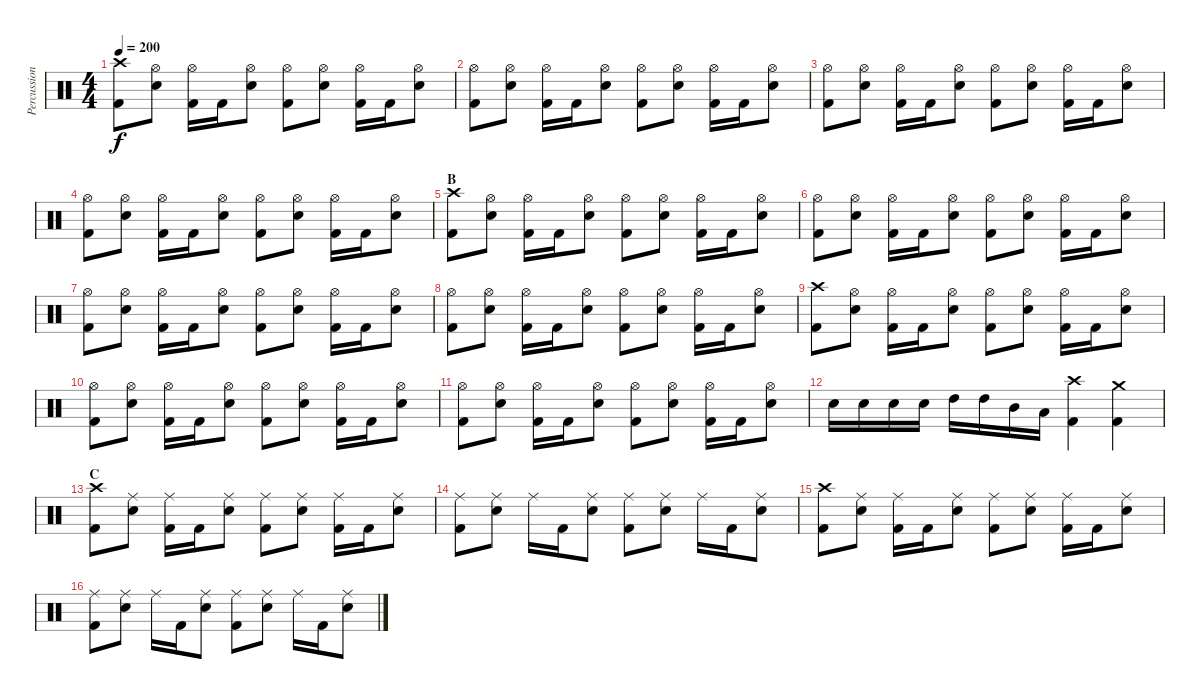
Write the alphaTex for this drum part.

\track ("Percussion" "Percussion") {instrument percussion}
\staff {score}
\articulation defaults
\ts (4 4)
\tempo 200
\clef neutral
\ks c
("Crash high (hit)" "Kick (hit) 2").8{dy f} ("Hi-Hat (open)" "Electric Snare (hit)").8 ("Hi-Hat (open)" "Kick (hit) 2").16 "Kick (hit) 2".16 ("Hi-Hat (open)" "Electric Snare (hit)").8 ("Hi-Hat (open)" "Kick (hit) 2").8 ("Hi-Hat (open)" "Electric Snare (hit)").8 ("Hi-Hat (open)" "Kick (hit) 2").16 "Kick (hit) 2".16 ("Hi-Hat (open)" "Electric Snare (hit)").8 |
("Hi-Hat (open)" "Kick (hit) 2").8 ("Hi-Hat (open)" "Electric Snare (hit)").8 ("Hi-Hat (open)" "Kick (hit) 2").16 "Kick (hit) 2".16 ("Hi-Hat (open)" "Electric Snare (hit)").8 ("Hi-Hat (open)" "Kick (hit) 2").8 ("Hi-Hat (open)" "Electric Snare (hit)").8 ("Hi-Hat (open)" "Kick (hit) 2").16 "Kick (hit) 2".16 ("Hi-Hat (open)" "Electric Snare (hit)").8 |
("Hi-Hat (open)" "Kick (hit) 2").8 ("Hi-Hat (open)" "Electric Snare (hit)").8 ("Hi-Hat (open)" "Kick (hit) 2").16 "Kick (hit) 2".16 ("Hi-Hat (open)" "Electric Snare (hit)").8 ("Hi-Hat (open)" "Kick (hit) 2").8 ("Hi-Hat (open)" "Electric Snare (hit)").8 ("Hi-Hat (open)" "Kick (hit) 2").16 "Kick (hit) 2".16 ("Hi-Hat (open)" "Electric Snare (hit)").8 |
("Hi-Hat (open)" "Kick (hit) 2").8 ("Hi-Hat (open)" "Electric Snare (hit)").8 ("Hi-Hat (open)" "Kick (hit) 2").16 "Kick (hit) 2".16 ("Hi-Hat (open)" "Electric Snare (hit)").8 ("Hi-Hat (open)" "Kick (hit) 2").8 ("Hi-Hat (open)" "Electric Snare (hit)").8 ("Hi-Hat (open)" "Kick (hit) 2").16 "Kick (hit) 2".16 ("Hi-Hat (open)" "Electric Snare (hit)").8 |
\section ("" "B")
("Crash high (hit)" "Kick (hit) 2").8 ("Hi-Hat (open)" "Electric Snare (hit)").8 ("Hi-Hat (open)" "Kick (hit) 2").16 "Kick (hit) 2".16 ("Hi-Hat (open)" "Electric Snare (hit)").8 ("Hi-Hat (open)" "Kick (hit) 2").8 ("Hi-Hat (open)" "Electric Snare (hit)").8 ("Hi-Hat (open)" "Kick (hit) 2").16 "Kick (hit) 2".16 ("Hi-Hat (open)" "Electric Snare (hit)").8 |
("Hi-Hat (open)" "Kick (hit) 2").8 ("Hi-Hat (open)" "Electric Snare (hit)").8 ("Hi-Hat (open)" "Kick (hit) 2").16 "Kick (hit) 2".16 ("Hi-Hat (open)" "Electric Snare (hit)").8 ("Hi-Hat (open)" "Kick (hit) 2").8 ("Hi-Hat (open)" "Electric Snare (hit)").8 ("Hi-Hat (open)" "Kick (hit) 2").16 "Kick (hit) 2".16 ("Hi-Hat (open)" "Electric Snare (hit)").8 |
("Hi-Hat (open)" "Kick (hit) 2").8 ("Hi-Hat (open)" "Electric Snare (hit)").8 ("Hi-Hat (open)" "Kick (hit) 2").16 "Kick (hit) 2".16 ("Hi-Hat (open)" "Electric Snare (hit)").8 ("Hi-Hat (open)" "Kick (hit) 2").8 ("Hi-Hat (open)" "Electric Snare (hit)").8 ("Hi-Hat (open)" "Kick (hit) 2").16 "Kick (hit) 2".16 ("Hi-Hat (open)" "Electric Snare (hit)").8 |
("Hi-Hat (open)" "Kick (hit) 2").8 ("Hi-Hat (open)" "Electric Snare (hit)").8 ("Hi-Hat (open)" "Kick (hit) 2").16 "Kick (hit) 2".16 ("Hi-Hat (open)" "Electric Snare (hit)").8 ("Hi-Hat (open)" "Kick (hit) 2").8 ("Hi-Hat (open)" "Electric Snare (hit)").8 ("Hi-Hat (open)" "Kick (hit) 2").16 "Kick (hit) 2".16 ("Hi-Hat (open)" "Electric Snare (hit)").8 |
("Crash high (hit)" "Kick (hit) 2").8 ("Hi-Hat (open)" "Electric Snare (hit)").8 ("Hi-Hat (open)" "Kick (hit) 2").16 "Kick (hit) 2".16 ("Hi-Hat (open)" "Electric Snare (hit)").8 ("Hi-Hat (open)" "Kick (hit) 2").8 ("Hi-Hat (open)" "Electric Snare (hit)").8 ("Hi-Hat (open)" "Kick (hit) 2").16 "Kick (hit) 2".16 ("Hi-Hat (open)" "Electric Snare (hit)").8 |
("Hi-Hat (open)" "Kick (hit) 2").8 ("Hi-Hat (open)" "Electric Snare (hit)").8 ("Hi-Hat (open)" "Kick (hit) 2").16 "Kick (hit) 2".16 ("Hi-Hat (open)" "Electric Snare (hit)").8 ("Hi-Hat (open)" "Kick (hit) 2").8 ("Hi-Hat (open)" "Electric Snare (hit)").8 ("Hi-Hat (open)" "Kick (hit) 2").16 "Kick (hit) 2".16 ("Hi-Hat (open)" "Electric Snare (hit)").8 |
("Hi-Hat (open)" "Kick (hit) 2").8 ("Hi-Hat (open)" "Electric Snare (hit)").8 ("Hi-Hat (open)" "Kick (hit) 2").16 "Kick (hit) 2".16 ("Hi-Hat (open)" "Electric Snare (hit)").8 ("Hi-Hat (open)" "Kick (hit) 2").8 ("Hi-Hat (open)" "Electric Snare (hit)").8 ("Hi-Hat (open)" "Kick (hit) 2").16 "Kick (hit) 2".16 ("Hi-Hat (open)" "Electric Snare (hit)").8 |
"Electric Snare (hit)".16 "Electric Snare (hit)".16 "Electric Snare (hit)".16 "Electric Snare (hit)".16 "High Tom (hit)".16 "High Tom (hit)".16 "Mid Tom (hit)".16 "Low Tom (hit)".16 ("Crash high (hit)" "Kick (hit) 2").4 ("Crash medium (hit)" "Kick (hit) 2").4 |
\section ("" "C")
("Crash high (hit)" "Kick (hit) 2").8 ("Ride (middle)" "Electric Snare (hit)").8 ("Ride (middle)" "Kick (hit) 2").16 "Kick (hit) 2".16 ("Ride (middle)" "Electric Snare (hit)").8 ("Ride (middle)" "Kick (hit) 2").8 ("Ride (middle)" "Electric Snare (hit)").8 ("Ride (middle)" "Kick (hit) 2").16 "Kick (hit) 2".16 ("Ride (middle)" "Electric Snare (hit)").8 |
("Ride (middle)" "Kick (hit) 2").8 ("Ride (middle)" "Electric Snare (hit)").8 "Ride (middle)".16 "Kick (hit) 2".16 ("Ride (middle)" "Electric Snare (hit)").8 ("Ride (middle)" "Kick (hit) 2").8 ("Ride (middle)" "Electric Snare (hit)").8 "Ride (middle)".16 "Kick (hit) 2".16 ("Ride (middle)" "Electric Snare (hit)").8 |
("Crash high (hit)" "Kick (hit) 2").8 ("Ride (middle)" "Electric Snare (hit)").8 ("Ride (middle)" "Kick (hit) 2").16 "Kick (hit) 2".16 ("Ride (middle)" "Electric Snare (hit)").8 ("Ride (middle)" "Kick (hit) 2").8 ("Ride (middle)" "Electric Snare (hit)").8 ("Ride (middle)" "Kick (hit) 2").16 "Kick (hit) 2".16 ("Ride (middle)" "Electric Snare (hit)").8 |
("Ride (middle)" "Kick (hit) 2").8 ("Ride (middle)" "Electric Snare (hit)").8 "Ride (middle)".16 "Kick (hit) 2".16 ("Ride (middle)" "Electric Snare (hit)").8 ("Ride (middle)" "Kick (hit) 2").8 ("Ride (middle)" "Electric Snare (hit)").8 "Ride (middle)".16 "Kick (hit) 2".16 ("Ride (middle)" "Electric Snare (hit)").8
